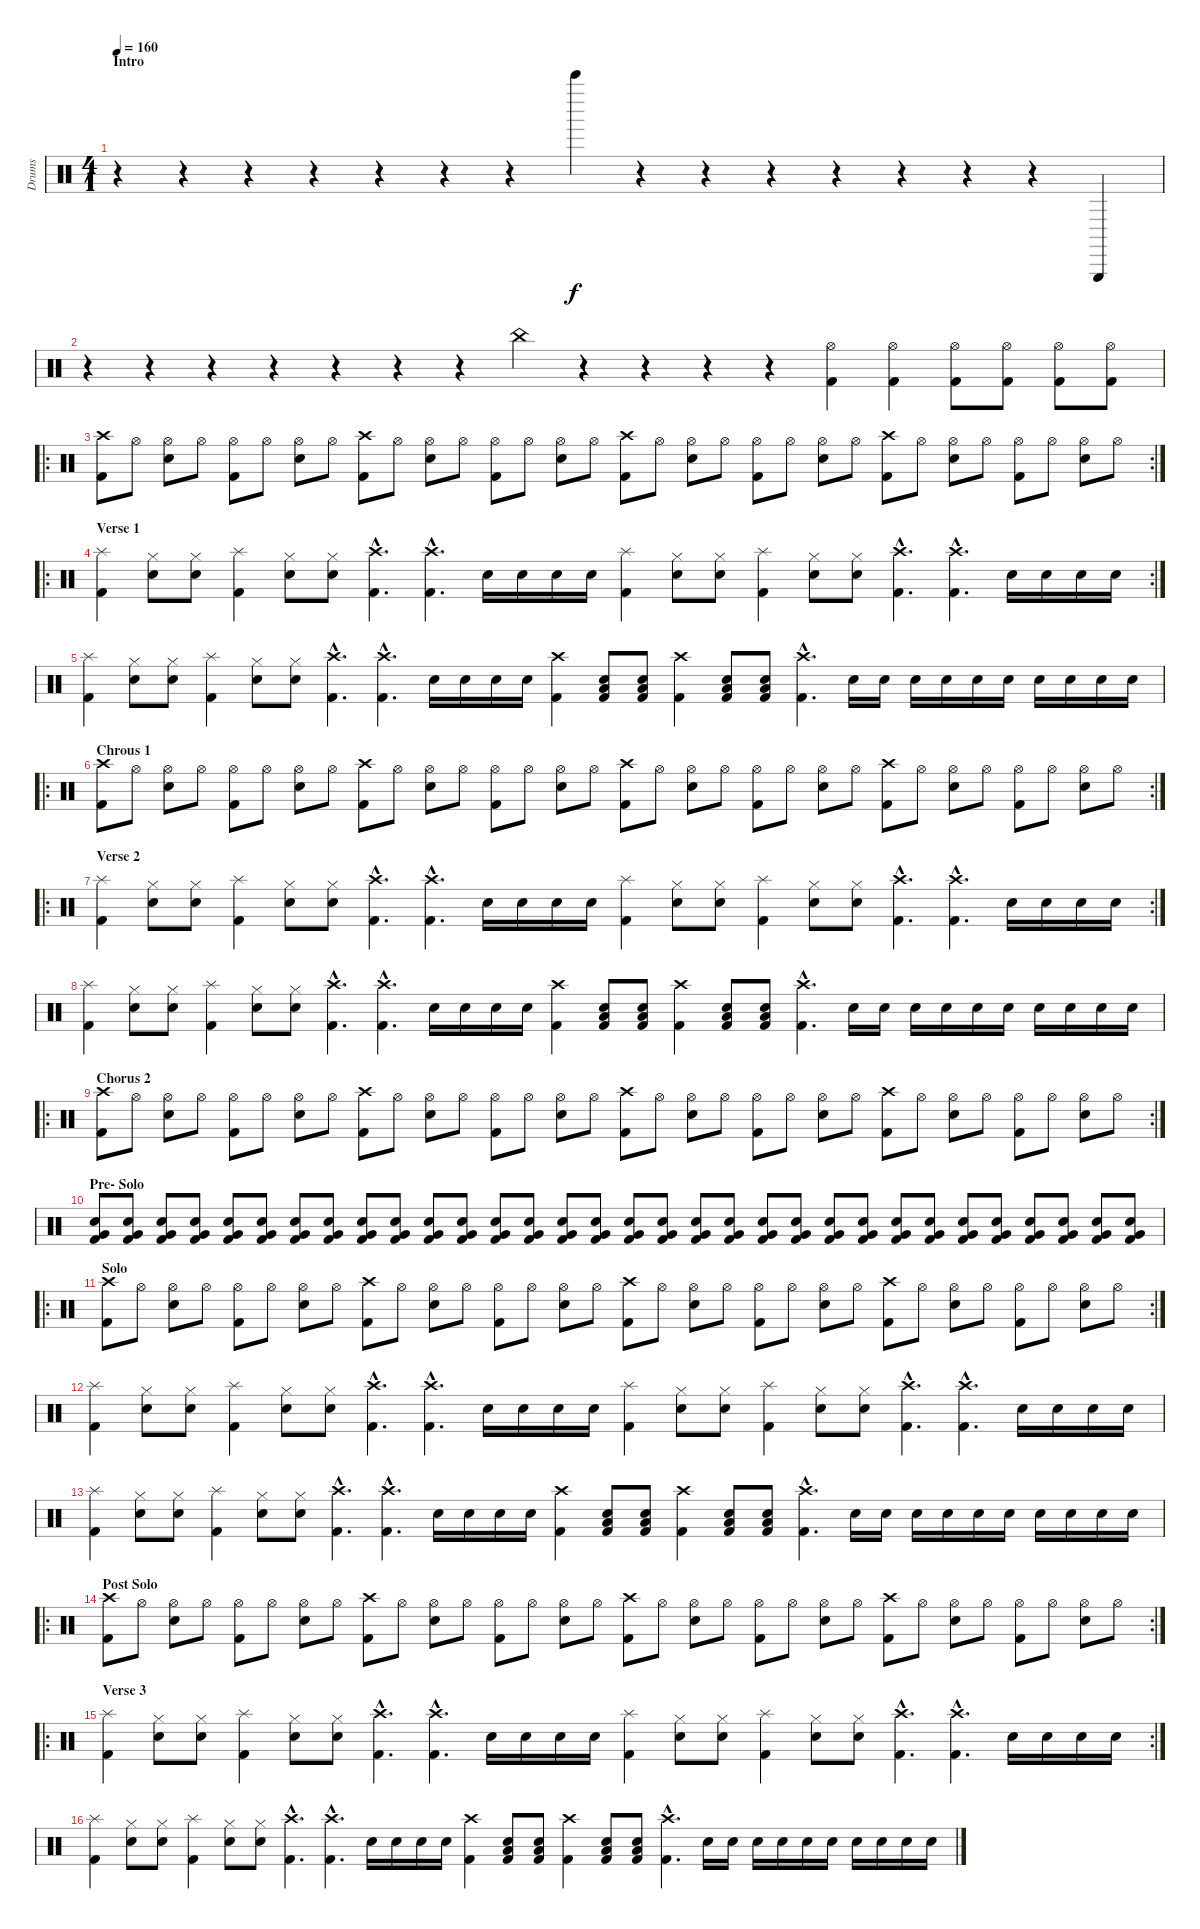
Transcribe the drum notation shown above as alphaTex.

\track ("Drums" "Drums") {instrument percussion}
\staff {score}
\articulation defaults
\ts (4 1)
\section ("" "Intro")
\tempo 160
\clef neutral
\ks c
r.4{dy f} r.4 r.4 r.4 r.4 r.4 r.4 "Bell Tree (hit)".4 r.4 r.4 r.4 r.4 r.4 r.4 r.4 "Triangle (hit)".4 |
r.4 r.4 r.4 r.4 r.4 r.4 r.4 "China (hit)".4 r.4 r.4 r.4 r.4 ("Hi-Hat (open)" "Kick (hit) 2").4 ("Hi-Hat (open)" "Kick (hit) 2").4 ("Hi-Hat (open)" "Kick (hit) 2").8 ("Hi-Hat (open)" "Kick (hit) 2").8 ("Hi-Hat (open)" "Kick (hit) 2").8 ("Hi-Hat (open)" "Kick (hit) 2").8 |
\ro
\rc 2
("Crash high (hit)" "Kick (hit) 2").8 "Hi-Hat (open)".8 ("Hi-Hat (open)" "Electric Snare (hit)").8 "Hi-Hat (open)".8 ("Hi-Hat (open)" "Kick (hit) 2").8 "Hi-Hat (open)".8 ("Hi-Hat (open)" "Electric Snare (hit)").8 "Hi-Hat (open)".8 ("Crash high (hit)" "Kick (hit) 2").8 "Hi-Hat (open)".8 ("Hi-Hat (open)" "Electric Snare (hit)").8 "Hi-Hat (open)".8 ("Hi-Hat (open)" "Kick (hit) 2").8 "Hi-Hat (open)".8 ("Hi-Hat (open)" "Electric Snare (hit)").8 "Hi-Hat (open)".8 ("Crash high (hit)" "Kick (hit) 2").8 "Hi-Hat (open)".8 ("Hi-Hat (open)" "Electric Snare (hit)").8 "Hi-Hat (open)".8 ("Hi-Hat (open)" "Kick (hit) 2").8 "Hi-Hat (open)".8 ("Hi-Hat (open)" "Electric Snare (hit)").8 "Hi-Hat (open)".8 ("Crash high (hit)" "Kick (hit) 2").8 "Hi-Hat (open)".8 ("Hi-Hat (open)" "Electric Snare (hit)").8 "Hi-Hat (open)".8 ("Hi-Hat (open)" "Kick (hit) 2").8 "Hi-Hat (open)".8 ("Hi-Hat (open)" "Electric Snare (hit)").8 "Hi-Hat (open)".8 |
\ro
\rc 2
\section ("" "Verse 1")
("Splash (hit)" "Kick (hit) 2").4 ("Hi-Hat (closed)" "Electric Snare (hit)").8 ("Hi-Hat (closed)" "Electric Snare (hit)").8 ("Splash (hit)" "Kick (hit) 2").4 ("Hi-Hat (closed)" "Electric Snare (hit)").8 ("Hi-Hat (closed)" "Electric Snare (hit)").8 ("Crash high (hit)"{hac} "Kick (hit) 2"{hac}).4{d} ("Crash high (hit)"{hac} "Kick (hit) 2"{hac}).4{d} "Electric Snare (hit)".16 "Electric Snare (hit)".16 "Electric Snare (hit)".16 "Electric Snare (hit)".16 ("Splash (hit)" "Kick (hit) 2").4 ("Hi-Hat (closed)" "Electric Snare (hit)").8 ("Hi-Hat (closed)" "Electric Snare (hit)").8 ("Splash (hit)" "Kick (hit) 2").4 ("Hi-Hat (closed)" "Electric Snare (hit)").8 ("Hi-Hat (closed)" "Electric Snare (hit)").8 ("Crash high (hit)"{hac} "Kick (hit) 2"{hac}).4{d} ("Crash high (hit)"{hac} "Kick (hit) 2"{hac}).4{d} "Electric Snare (hit)".16 "Electric Snare (hit)".16 "Electric Snare (hit)".16 "Electric Snare (hit)".16 |
("Splash (hit)" "Kick (hit) 2").4 ("Hi-Hat (closed)" "Electric Snare (hit)").8 ("Hi-Hat (closed)" "Electric Snare (hit)").8 ("Splash (hit)" "Kick (hit) 2").4 ("Hi-Hat (closed)" "Electric Snare (hit)").8 ("Hi-Hat (closed)" "Electric Snare (hit)").8 ("Crash high (hit)"{hac} "Kick (hit) 2"{hac}).4{d} ("Crash high (hit)"{hac} "Kick (hit) 2"{hac}).4{d} "Electric Snare (hit)".16 "Electric Snare (hit)".16 "Electric Snare (hit)".16 "Electric Snare (hit)".16 ("Crash high (hit)" "Kick (hit) 2").4 ("Electric Snare (hit)" "Low Floor Tom (hit)" "Kick (hit) 2").8 ("Electric Snare (hit)" "Low Floor Tom (hit)" "Kick (hit) 2").8 ("Crash high (hit)" "Kick (hit) 2").4 ("Electric Snare (hit)" "Low Floor Tom (hit)" "Kick (hit) 2").8 ("Electric Snare (hit)" "Low Floor Tom (hit)" "Kick (hit) 2").8 ("Crash high (hit)"{hac} "Kick (hit) 2"{hac}).4{d} "Electric Snare (hit)".16 "Electric Snare (hit)".16 "Electric Snare (hit)".16 "Electric Snare (hit)".16 "Electric Snare (hit)".16 "Electric Snare (hit)".16 "Electric Snare (hit)".16 "Electric Snare (hit)".16 "Electric Snare (hit)".16 "Electric Snare (hit)".16 |
\ro
\rc 2
\section ("" "Chrous 1")
("Crash high (hit)" "Kick (hit) 2").8 "Hi-Hat (open)".8 ("Hi-Hat (open)" "Electric Snare (hit)").8 "Hi-Hat (open)".8 ("Hi-Hat (open)" "Kick (hit) 2").8 "Hi-Hat (open)".8 ("Hi-Hat (open)" "Electric Snare (hit)").8 "Hi-Hat (open)".8 ("Crash high (hit)" "Kick (hit) 2").8 "Hi-Hat (open)".8 ("Hi-Hat (open)" "Electric Snare (hit)").8 "Hi-Hat (open)".8 ("Hi-Hat (open)" "Kick (hit) 2").8 "Hi-Hat (open)".8 ("Hi-Hat (open)" "Electric Snare (hit)").8 "Hi-Hat (open)".8 ("Crash high (hit)" "Kick (hit) 2").8 "Hi-Hat (open)".8 ("Hi-Hat (open)" "Electric Snare (hit)").8 "Hi-Hat (open)".8 ("Hi-Hat (open)" "Kick (hit) 2").8 "Hi-Hat (open)".8 ("Hi-Hat (open)" "Electric Snare (hit)").8 "Hi-Hat (open)".8 ("Crash high (hit)" "Kick (hit) 2").8 "Hi-Hat (open)".8 ("Hi-Hat (open)" "Electric Snare (hit)").8 "Hi-Hat (open)".8 ("Hi-Hat (open)" "Kick (hit) 2").8 "Hi-Hat (open)".8 ("Hi-Hat (open)" "Electric Snare (hit)").8 "Hi-Hat (open)".8 |
\ro
\rc 2
\section ("" "Verse 2")
("Splash (hit)" "Kick (hit) 2").4 ("Hi-Hat (closed)" "Electric Snare (hit)").8 ("Hi-Hat (closed)" "Electric Snare (hit)").8 ("Splash (hit)" "Kick (hit) 2").4 ("Hi-Hat (closed)" "Electric Snare (hit)").8 ("Hi-Hat (closed)" "Electric Snare (hit)").8 ("Crash high (hit)"{hac} "Kick (hit) 2"{hac}).4{d} ("Crash high (hit)"{hac} "Kick (hit) 2"{hac}).4{d} "Electric Snare (hit)".16 "Electric Snare (hit)".16 "Electric Snare (hit)".16 "Electric Snare (hit)".16 ("Splash (hit)" "Kick (hit) 2").4 ("Hi-Hat (closed)" "Electric Snare (hit)").8 ("Hi-Hat (closed)" "Electric Snare (hit)").8 ("Splash (hit)" "Kick (hit) 2").4 ("Hi-Hat (closed)" "Electric Snare (hit)").8 ("Hi-Hat (closed)" "Electric Snare (hit)").8 ("Crash high (hit)"{hac} "Kick (hit) 2"{hac}).4{d} ("Crash high (hit)"{hac} "Kick (hit) 2"{hac}).4{d} "Electric Snare (hit)".16 "Electric Snare (hit)".16 "Electric Snare (hit)".16 "Electric Snare (hit)".16 |
("Splash (hit)" "Kick (hit) 2").4 ("Hi-Hat (closed)" "Electric Snare (hit)").8 ("Hi-Hat (closed)" "Electric Snare (hit)").8 ("Splash (hit)" "Kick (hit) 2").4 ("Hi-Hat (closed)" "Electric Snare (hit)").8 ("Hi-Hat (closed)" "Electric Snare (hit)").8 ("Crash high (hit)"{hac} "Kick (hit) 2"{hac}).4{d} ("Crash high (hit)"{hac} "Kick (hit) 2"{hac}).4{d} "Electric Snare (hit)".16 "Electric Snare (hit)".16 "Electric Snare (hit)".16 "Electric Snare (hit)".16 ("Crash high (hit)" "Kick (hit) 2").4 ("Electric Snare (hit)" "Low Floor Tom (hit)" "Kick (hit) 2").8 ("Electric Snare (hit)" "Low Floor Tom (hit)" "Kick (hit) 2").8 ("Crash high (hit)" "Kick (hit) 2").4 ("Electric Snare (hit)" "Low Floor Tom (hit)" "Kick (hit) 2").8 ("Electric Snare (hit)" "Low Floor Tom (hit)" "Kick (hit) 2").8 ("Crash high (hit)"{hac} "Kick (hit) 2"{hac}).4{d} "Electric Snare (hit)".16 "Electric Snare (hit)".16 "Electric Snare (hit)".16 "Electric Snare (hit)".16 "Electric Snare (hit)".16 "Electric Snare (hit)".16 "Electric Snare (hit)".16 "Electric Snare (hit)".16 "Electric Snare (hit)".16 "Electric Snare (hit)".16 |
\ro
\rc 2
\section ("" "Chorus 2")
("Crash high (hit)" "Kick (hit) 2").8 "Hi-Hat (open)".8 ("Hi-Hat (open)" "Electric Snare (hit)").8 "Hi-Hat (open)".8 ("Hi-Hat (open)" "Kick (hit) 2").8 "Hi-Hat (open)".8 ("Hi-Hat (open)" "Electric Snare (hit)").8 "Hi-Hat (open)".8 ("Crash high (hit)" "Kick (hit) 2").8 "Hi-Hat (open)".8 ("Hi-Hat (open)" "Electric Snare (hit)").8 "Hi-Hat (open)".8 ("Hi-Hat (open)" "Kick (hit) 2").8 "Hi-Hat (open)".8 ("Hi-Hat (open)" "Electric Snare (hit)").8 "Hi-Hat (open)".8 ("Crash high (hit)" "Kick (hit) 2").8 "Hi-Hat (open)".8 ("Hi-Hat (open)" "Electric Snare (hit)").8 "Hi-Hat (open)".8 ("Hi-Hat (open)" "Kick (hit) 2").8 "Hi-Hat (open)".8 ("Hi-Hat (open)" "Electric Snare (hit)").8 "Hi-Hat (open)".8 ("Crash high (hit)" "Kick (hit) 2").8 "Hi-Hat (open)".8 ("Hi-Hat (open)" "Electric Snare (hit)").8 "Hi-Hat (open)".8 ("Hi-Hat (open)" "Kick (hit) 2").8 "Hi-Hat (open)".8 ("Hi-Hat (open)" "Electric Snare (hit)").8 "Hi-Hat (open)".8 |
\section ("" "Pre- Solo")
("Very Low Tom (hit)" "Electric Snare (hit)" "Kick (hit) 2").8 ("Very Low Tom (hit)" "Electric Snare (hit)" "Kick (hit) 2").8 ("Very Low Tom (hit)" "Electric Snare (hit)" "Kick (hit) 2").8 ("Very Low Tom (hit)" "Electric Snare (hit)" "Kick (hit) 2").8 ("Very Low Tom (hit)" "Electric Snare (hit)" "Kick (hit) 2").8 ("Very Low Tom (hit)" "Electric Snare (hit)" "Kick (hit) 2").8 ("Very Low Tom (hit)" "Electric Snare (hit)" "Kick (hit) 2").8 ("Very Low Tom (hit)" "Electric Snare (hit)" "Kick (hit) 2").8 ("Very Low Tom (hit)" "Electric Snare (hit)" "Kick (hit) 2").8 ("Very Low Tom (hit)" "Electric Snare (hit)" "Kick (hit) 2").8 ("Very Low Tom (hit)" "Electric Snare (hit)" "Kick (hit) 2").8 ("Very Low Tom (hit)" "Electric Snare (hit)" "Kick (hit) 2").8 ("Very Low Tom (hit)" "Electric Snare (hit)" "Kick (hit) 2").8 ("Very Low Tom (hit)" "Electric Snare (hit)" "Kick (hit) 2").8 ("Very Low Tom (hit)" "Electric Snare (hit)" "Kick (hit) 2").8 ("Very Low Tom (hit)" "Electric Snare (hit)" "Kick (hit) 2").8 ("Very Low Tom (hit)" "Electric Snare (hit)" "Kick (hit) 2").8 ("Very Low Tom (hit)" "Electric Snare (hit)" "Kick (hit) 2").8 ("Very Low Tom (hit)" "Electric Snare (hit)" "Kick (hit) 2").8 ("Very Low Tom (hit)" "Electric Snare (hit)" "Kick (hit) 2").8 ("Very Low Tom (hit)" "Electric Snare (hit)" "Kick (hit) 2").8 ("Very Low Tom (hit)" "Electric Snare (hit)" "Kick (hit) 2").8 ("Very Low Tom (hit)" "Electric Snare (hit)" "Kick (hit) 2").8 ("Very Low Tom (hit)" "Electric Snare (hit)" "Kick (hit) 2").8 ("Very Low Tom (hit)" "Electric Snare (hit)" "Kick (hit) 2").8 ("Very Low Tom (hit)" "Electric Snare (hit)" "Kick (hit) 2").8 ("Very Low Tom (hit)" "Electric Snare (hit)" "Kick (hit) 2").8 ("Very Low Tom (hit)" "Electric Snare (hit)" "Kick (hit) 2").8 ("Very Low Tom (hit)" "Electric Snare (hit)" "Kick (hit) 2").8 ("Very Low Tom (hit)" "Electric Snare (hit)" "Kick (hit) 2").8 ("Very Low Tom (hit)" "Electric Snare (hit)" "Kick (hit) 2").8 ("Very Low Tom (hit)" "Electric Snare (hit)" "Kick (hit) 2").8 |
\ro
\rc 2
\section ("" "Solo")
("Crash high (hit)" "Kick (hit) 2").8 "Hi-Hat (open)".8 ("Hi-Hat (open)" "Electric Snare (hit)").8 "Hi-Hat (open)".8 ("Hi-Hat (open)" "Kick (hit) 2").8 "Hi-Hat (open)".8 ("Hi-Hat (open)" "Electric Snare (hit)").8 "Hi-Hat (open)".8 ("Crash high (hit)" "Kick (hit) 2").8 "Hi-Hat (open)".8 ("Hi-Hat (open)" "Electric Snare (hit)").8 "Hi-Hat (open)".8 ("Hi-Hat (open)" "Kick (hit) 2").8 "Hi-Hat (open)".8 ("Hi-Hat (open)" "Electric Snare (hit)").8 "Hi-Hat (open)".8 ("Crash high (hit)" "Kick (hit) 2").8 "Hi-Hat (open)".8 ("Hi-Hat (open)" "Electric Snare (hit)").8 "Hi-Hat (open)".8 ("Hi-Hat (open)" "Kick (hit) 2").8 "Hi-Hat (open)".8 ("Hi-Hat (open)" "Electric Snare (hit)").8 "Hi-Hat (open)".8 ("Crash high (hit)" "Kick (hit) 2").8 "Hi-Hat (open)".8 ("Hi-Hat (open)" "Electric Snare (hit)").8 "Hi-Hat (open)".8 ("Hi-Hat (open)" "Kick (hit) 2").8 "Hi-Hat (open)".8 ("Hi-Hat (open)" "Electric Snare (hit)").8 "Hi-Hat (open)".8 |
("Splash (hit)" "Kick (hit) 2").4 ("Hi-Hat (closed)" "Electric Snare (hit)").8 ("Hi-Hat (closed)" "Electric Snare (hit)").8 ("Splash (hit)" "Kick (hit) 2").4 ("Hi-Hat (closed)" "Electric Snare (hit)").8 ("Hi-Hat (closed)" "Electric Snare (hit)").8 ("Crash high (hit)"{hac} "Kick (hit) 2"{hac}).4{d} ("Crash high (hit)"{hac} "Kick (hit) 2"{hac}).4{d} "Electric Snare (hit)".16 "Electric Snare (hit)".16 "Electric Snare (hit)".16 "Electric Snare (hit)".16 ("Splash (hit)" "Kick (hit) 2").4 ("Hi-Hat (closed)" "Electric Snare (hit)").8 ("Hi-Hat (closed)" "Electric Snare (hit)").8 ("Splash (hit)" "Kick (hit) 2").4 ("Hi-Hat (closed)" "Electric Snare (hit)").8 ("Hi-Hat (closed)" "Electric Snare (hit)").8 ("Crash high (hit)"{hac} "Kick (hit) 2"{hac}).4{d} ("Crash high (hit)"{hac} "Kick (hit) 2"{hac}).4{d} "Electric Snare (hit)".16 "Electric Snare (hit)".16 "Electric Snare (hit)".16 "Electric Snare (hit)".16 |
("Splash (hit)" "Kick (hit) 2").4 ("Hi-Hat (closed)" "Electric Snare (hit)").8 ("Hi-Hat (closed)" "Electric Snare (hit)").8 ("Splash (hit)" "Kick (hit) 2").4 ("Hi-Hat (closed)" "Electric Snare (hit)").8 ("Hi-Hat (closed)" "Electric Snare (hit)").8 ("Crash high (hit)"{hac} "Kick (hit) 2"{hac}).4{d} ("Crash high (hit)"{hac} "Kick (hit) 2"{hac}).4{d} "Electric Snare (hit)".16 "Electric Snare (hit)".16 "Electric Snare (hit)".16 "Electric Snare (hit)".16 ("Crash high (hit)" "Kick (hit) 2").4 ("Electric Snare (hit)" "Low Floor Tom (hit)" "Kick (hit) 2").8 ("Electric Snare (hit)" "Low Floor Tom (hit)" "Kick (hit) 2").8 ("Crash high (hit)" "Kick (hit) 2").4 ("Electric Snare (hit)" "Low Floor Tom (hit)" "Kick (hit) 2").8 ("Electric Snare (hit)" "Low Floor Tom (hit)" "Kick (hit) 2").8 ("Crash high (hit)"{hac} "Kick (hit) 2"{hac}).4{d} "Electric Snare (hit)".16 "Electric Snare (hit)".16 "Electric Snare (hit)".16 "Electric Snare (hit)".16 "Electric Snare (hit)".16 "Electric Snare (hit)".16 "Electric Snare (hit)".16 "Electric Snare (hit)".16 "Electric Snare (hit)".16 "Electric Snare (hit)".16 |
\ro
\rc 2
\section ("" "Post Solo")
("Crash high (hit)" "Kick (hit) 2").8 "Hi-Hat (open)".8 ("Hi-Hat (open)" "Electric Snare (hit)").8 "Hi-Hat (open)".8 ("Hi-Hat (open)" "Kick (hit) 2").8 "Hi-Hat (open)".8 ("Hi-Hat (open)" "Electric Snare (hit)").8 "Hi-Hat (open)".8 ("Crash high (hit)" "Kick (hit) 2").8 "Hi-Hat (open)".8 ("Hi-Hat (open)" "Electric Snare (hit)").8 "Hi-Hat (open)".8 ("Hi-Hat (open)" "Kick (hit) 2").8 "Hi-Hat (open)".8 ("Hi-Hat (open)" "Electric Snare (hit)").8 "Hi-Hat (open)".8 ("Crash high (hit)" "Kick (hit) 2").8 "Hi-Hat (open)".8 ("Hi-Hat (open)" "Electric Snare (hit)").8 "Hi-Hat (open)".8 ("Hi-Hat (open)" "Kick (hit) 2").8 "Hi-Hat (open)".8 ("Hi-Hat (open)" "Electric Snare (hit)").8 "Hi-Hat (open)".8 ("Crash high (hit)" "Kick (hit) 2").8 "Hi-Hat (open)".8 ("Hi-Hat (open)" "Electric Snare (hit)").8 "Hi-Hat (open)".8 ("Hi-Hat (open)" "Kick (hit) 2").8 "Hi-Hat (open)".8 ("Hi-Hat (open)" "Electric Snare (hit)").8 "Hi-Hat (open)".8 |
\ro
\rc 2
\section ("" "Verse 3")
("Splash (hit)" "Kick (hit) 2").4 ("Hi-Hat (closed)" "Electric Snare (hit)").8 ("Hi-Hat (closed)" "Electric Snare (hit)").8 ("Splash (hit)" "Kick (hit) 2").4 ("Hi-Hat (closed)" "Electric Snare (hit)").8 ("Hi-Hat (closed)" "Electric Snare (hit)").8 ("Crash high (hit)"{hac} "Kick (hit) 2"{hac}).4{d} ("Crash high (hit)"{hac} "Kick (hit) 2"{hac}).4{d} "Electric Snare (hit)".16 "Electric Snare (hit)".16 "Electric Snare (hit)".16 "Electric Snare (hit)".16 ("Splash (hit)" "Kick (hit) 2").4 ("Hi-Hat (closed)" "Electric Snare (hit)").8 ("Hi-Hat (closed)" "Electric Snare (hit)").8 ("Splash (hit)" "Kick (hit) 2").4 ("Hi-Hat (closed)" "Electric Snare (hit)").8 ("Hi-Hat (closed)" "Electric Snare (hit)").8 ("Crash high (hit)"{hac} "Kick (hit) 2"{hac}).4{d} ("Crash high (hit)"{hac} "Kick (hit) 2"{hac}).4{d} "Electric Snare (hit)".16 "Electric Snare (hit)".16 "Electric Snare (hit)".16 "Electric Snare (hit)".16 |
("Splash (hit)" "Kick (hit) 2").4 ("Hi-Hat (closed)" "Electric Snare (hit)").8 ("Hi-Hat (closed)" "Electric Snare (hit)").8 ("Splash (hit)" "Kick (hit) 2").4 ("Hi-Hat (closed)" "Electric Snare (hit)").8 ("Hi-Hat (closed)" "Electric Snare (hit)").8 ("Crash high (hit)"{hac} "Kick (hit) 2"{hac}).4{d} ("Crash high (hit)"{hac} "Kick (hit) 2"{hac}).4{d} "Electric Snare (hit)".16 "Electric Snare (hit)".16 "Electric Snare (hit)".16 "Electric Snare (hit)".16 ("Crash high (hit)" "Kick (hit) 2").4 ("Electric Snare (hit)" "Low Floor Tom (hit)" "Kick (hit) 2").8 ("Electric Snare (hit)" "Low Floor Tom (hit)" "Kick (hit) 2").8 ("Crash high (hit)" "Kick (hit) 2").4 ("Electric Snare (hit)" "Low Floor Tom (hit)" "Kick (hit) 2").8 ("Electric Snare (hit)" "Low Floor Tom (hit)" "Kick (hit) 2").8 ("Crash high (hit)"{hac} "Kick (hit) 2"{hac}).4{d} "Electric Snare (hit)".16 "Electric Snare (hit)".16 "Electric Snare (hit)".16 "Electric Snare (hit)".16 "Electric Snare (hit)".16 "Electric Snare (hit)".16 "Electric Snare (hit)".16 "Electric Snare (hit)".16 "Electric Snare (hit)".16 "Electric Snare (hit)".16
